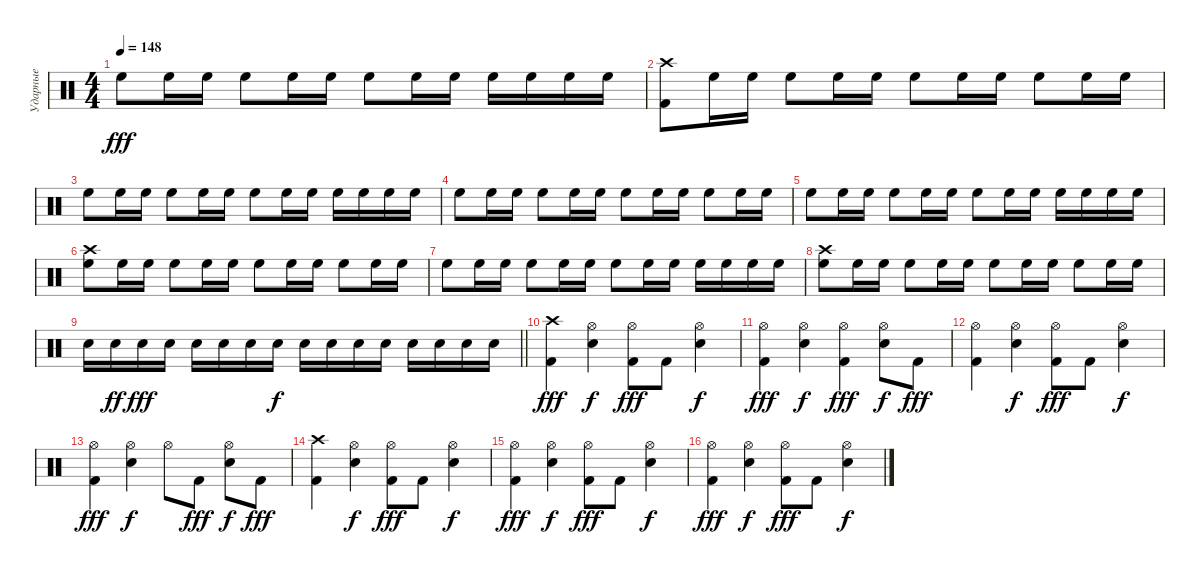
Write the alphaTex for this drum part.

\track ("Ударные" "Ударные") {instrument percussion}
\staff {score}
\articulation defaults
\ts (4 4)
\tempo 148
\clef neutral
\ks c "High Floor Tom (hit)".8{dy fff} "High Floor Tom (hit)".16 "High Floor Tom (hit)".16 "High Floor Tom (hit)".8 "High Floor Tom (hit)".16 "High Floor Tom (hit)".16 "High Floor Tom (hit)".8 "High Floor Tom (hit)".16 "High Floor Tom (hit)".16 "High Floor Tom (hit)".16 "High Floor Tom (hit)".16 "High Floor Tom (hit)".16 "High Floor Tom (hit)".16
|
("Kick (hit) 2" "Crash high (hit)").8 "High Floor Tom (hit)".16 "High Floor Tom (hit)".16 "High Floor Tom (hit)".8 "High Floor Tom (hit)".16 "High Floor Tom (hit)".16 "High Floor Tom (hit)".8 "High Floor Tom (hit)".16 "High Floor Tom (hit)".16 "High Floor Tom (hit)".8 "High Floor Tom (hit)".16 "High Floor Tom (hit)".16 |
"High Floor Tom (hit)".8 "High Floor Tom (hit)".16 "High Floor Tom (hit)".16 "High Floor Tom (hit)".8 "High Floor Tom (hit)".16 "High Floor Tom (hit)".16 "High Floor Tom (hit)".8 "High Floor Tom (hit)".16 "High Floor Tom (hit)".16 "High Floor Tom (hit)".16 "High Floor Tom (hit)".16 "High Floor Tom (hit)".16 "High Floor Tom (hit)".16 |
"High Floor Tom (hit)".8 "High Floor Tom (hit)".16 "High Floor Tom (hit)".16 "High Floor Tom (hit)".8 "High Floor Tom (hit)".16 "High Floor Tom (hit)".16 "High Floor Tom (hit)".8 "High Floor Tom (hit)".16 "High Floor Tom (hit)".16 "High Floor Tom (hit)".8 "High Floor Tom (hit)".16 "High Floor Tom (hit)".16 |
"High Floor Tom (hit)".8 "High Floor Tom (hit)".16 "High Floor Tom (hit)".16 "High Floor Tom (hit)".8 "High Floor Tom (hit)".16 "High Floor Tom (hit)".16 "High Floor Tom (hit)".8 "High Floor Tom (hit)".16 "High Floor Tom (hit)".16 "High Floor Tom (hit)".16 "High Floor Tom (hit)".16 "High Floor Tom (hit)".16 "High Floor Tom (hit)".16 |
("High Floor Tom (hit)" "Crash high (hit)").8 "High Floor Tom (hit)".16 "High Floor Tom (hit)".16 "High Floor Tom (hit)".8 "High Floor Tom (hit)".16 "High Floor Tom (hit)".16 "High Floor Tom (hit)".8 "High Floor Tom (hit)".16 "High Floor Tom (hit)".16 "High Floor Tom (hit)".8 "High Floor Tom (hit)".16 "High Floor Tom (hit)".16 |
"High Floor Tom (hit)".8 "High Floor Tom (hit)".16 "High Floor Tom (hit)".16 "High Floor Tom (hit)".8 "High Floor Tom (hit)".16 "High Floor Tom (hit)".16 "High Floor Tom (hit)".8 "High Floor Tom (hit)".16 "High Floor Tom (hit)".16 "High Floor Tom (hit)".16 "High Floor Tom (hit)".16 "High Floor Tom (hit)".16 "High Floor Tom (hit)".16 |
("High Floor Tom (hit)" "Crash high (hit)").8 "High Floor Tom (hit)".16 "High Floor Tom (hit)".16 "High Floor Tom (hit)".8 "High Floor Tom (hit)".16 "High Floor Tom (hit)".16 "High Floor Tom (hit)".8 "High Floor Tom (hit)".16 "High Floor Tom (hit)".16 "High Floor Tom (hit)".8 "High Floor Tom (hit)".16 "High Floor Tom (hit)".16 |
\barLineRight lightlight "Snare (hit) 2".16 "Snare (hit) 2".16{dy ff} "Snare (hit) 2".16{dy fff} "Snare (hit) 2".16 "Snare (hit) 2".16 "Snare (hit) 2".16 "Snare (hit) 2".16 "Snare (hit) 2".16{dy f} "Snare (hit) 2".16 "Snare (hit) 2".16 "Snare (hit) 2".16 "Snare (hit) 2".16 "Snare (hit) 2".16 "Snare (hit) 2".16 "Snare (hit) 2".16 "Snare (hit) 2".16
|
("Kick (hit) 2" "Crash high (hit)").4{dy fff} ("Snare (hit) 2" "Hi-Hat (open)").4{dy f} ("Kick (hit) 2" "Hi-Hat (open)").8{dy fff} "Kick (hit) 2".8 ("Snare (hit) 2" "Hi-Hat (open)").4{dy f} |
("Kick (hit) 2" "Hi-Hat (open)").4{dy fff} ("Snare (hit) 2" "Hi-Hat (open)").4{dy f} ("Kick (hit) 2" "Hi-Hat (open)").4{dy fff} ("Snare (hit) 2" "Hi-Hat (open)").8{dy f} "Kick (hit) 2".8{dy fff} |
("Kick (hit) 2" "Hi-Hat (open)").4 ("Snare (hit) 2" "Hi-Hat (open)").4{dy f} ("Kick (hit) 2" "Hi-Hat (open)").8{dy fff} "Kick (hit) 2".8 ("Snare (hit) 2" "Hi-Hat (open)").4{dy f} |
("Kick (hit) 2" "Hi-Hat (open)").4{dy fff} ("Snare (hit) 2" "Hi-Hat (open)").4{dy f} "Hi-Hat (open)".8 "Kick (hit) 2".8{dy fff} ("Snare (hit) 2" "Hi-Hat (open)").8{dy f} "Kick (hit) 2".8{dy fff} |
("Kick (hit) 2" "Crash high (hit)").4 ("Snare (hit) 2" "Hi-Hat (open)").4{dy f} ("Kick (hit) 2" "Hi-Hat (open)").8{dy fff} "Kick (hit) 2".8 ("Snare (hit) 2" "Hi-Hat (open)").4{dy f} |
("Kick (hit) 2" "Hi-Hat (open)").4{dy fff} ("Snare (hit) 2" "Hi-Hat (open)").4{dy f} ("Kick (hit) 2" "Hi-Hat (open)").8{dy fff} "Kick (hit) 2".8 ("Snare (hit) 2" "Hi-Hat (open)").4{dy f} |
("Kick (hit) 2" "Hi-Hat (open)").4{dy fff} ("Snare (hit) 2" "Hi-Hat (open)").4{dy f} ("Kick (hit) 2" "Hi-Hat (open)").8{dy fff} "Kick (hit) 2".8 ("Snare (hit) 2" "Hi-Hat (open)").4{dy f}
